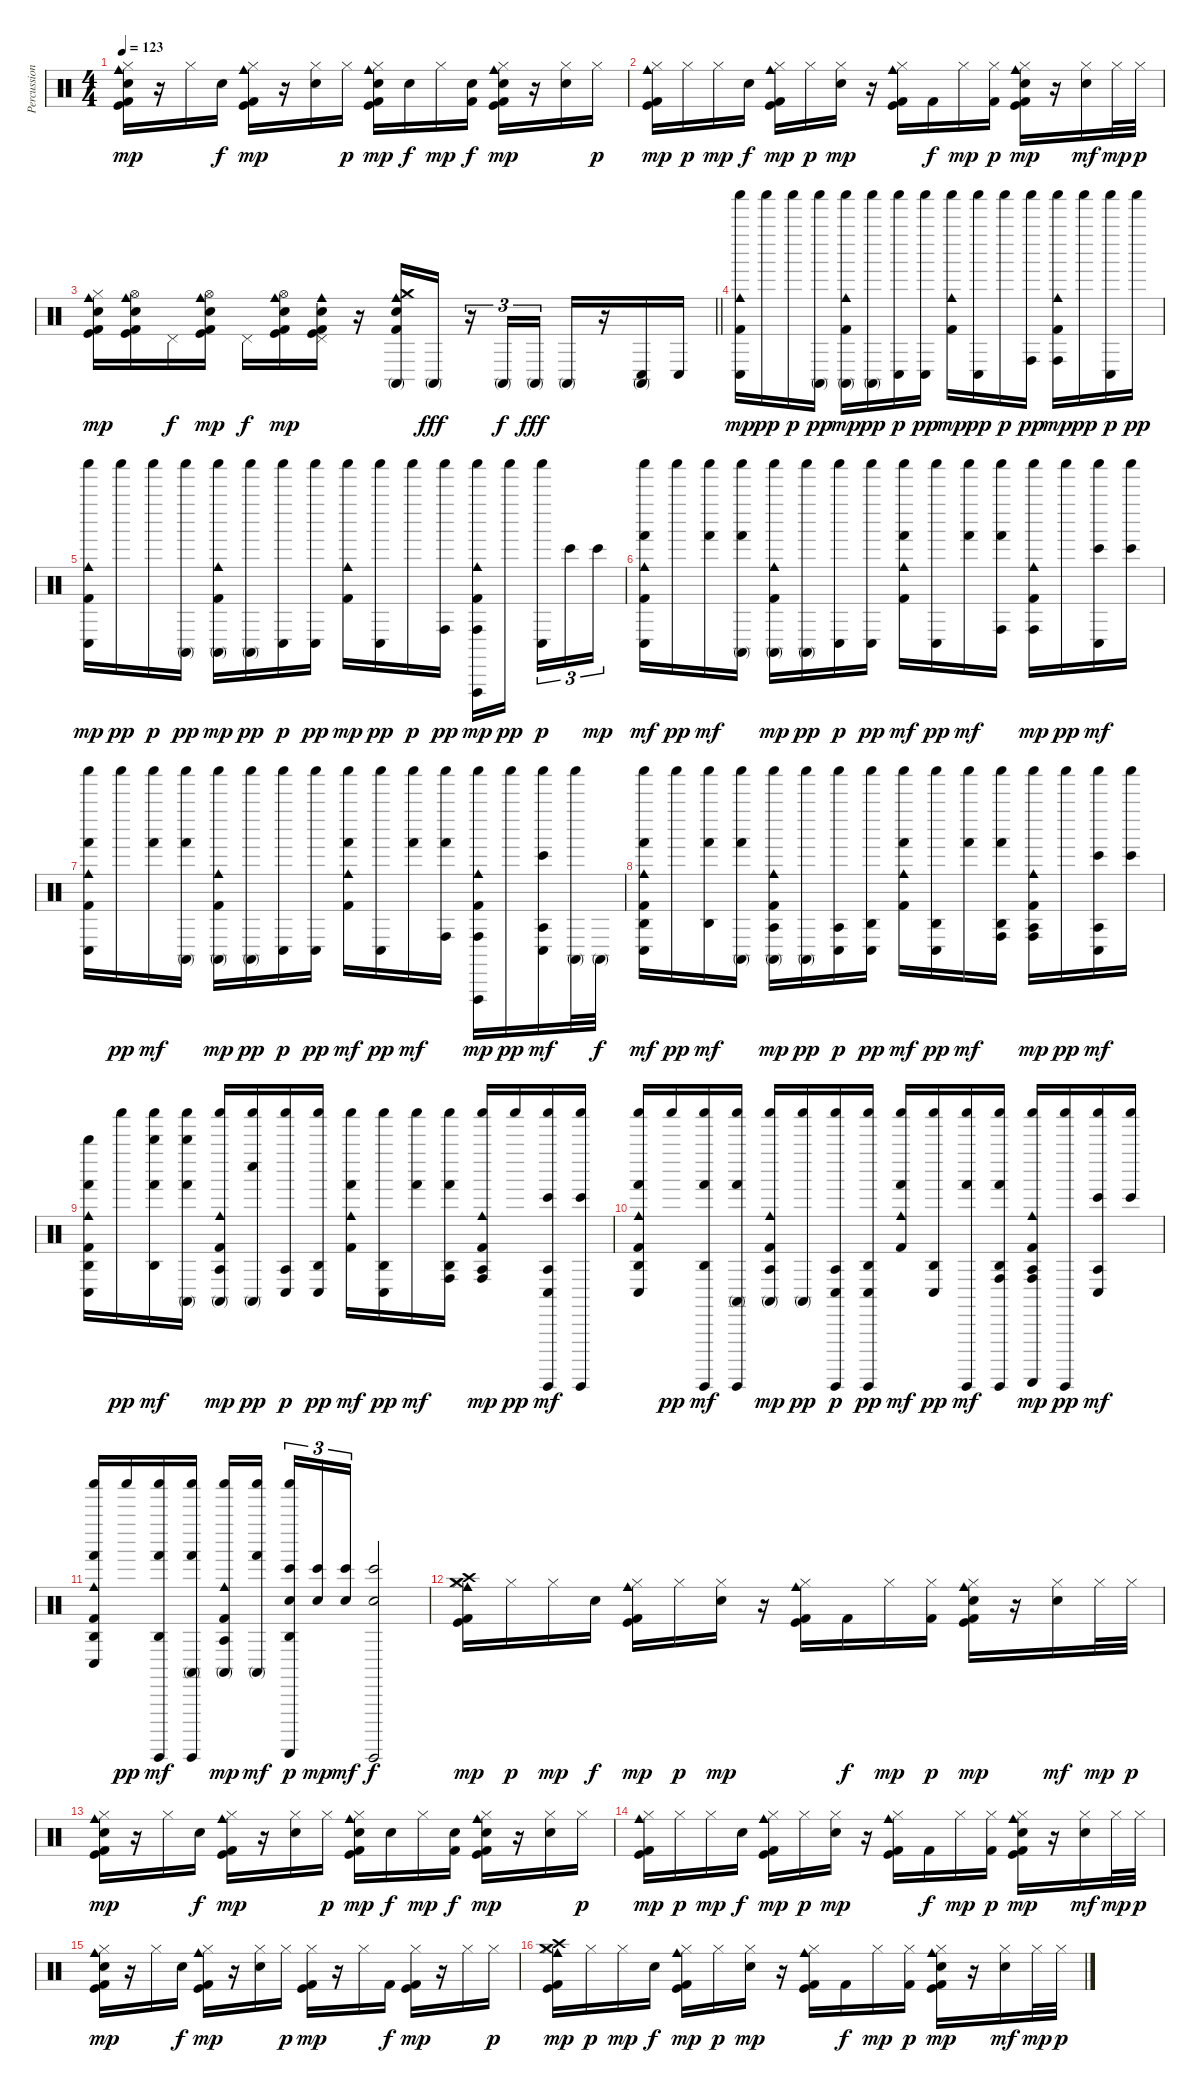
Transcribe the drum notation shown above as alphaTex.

\track ("Percussion" "Percussion") {instrument percussion}
\staff {score}
\articulation defaults
\ts (4 4)
\tempo 123
\clef neutral
\ks c
("Hi-Hat (closed)" "Cowbell medium (hit)" "Kick (hit)" "Electric Snare (hit)" "Kick (hit) 2").16{dy mp} r.16 "Hi-Hat (closed)".16 "Electric Snare (hit)".16{dy f} ("Hi-Hat (closed)" "Cowbell medium (hit)" "Kick (hit)" "Kick (hit) 2").16{dy mp} r.16 ("Hi-Hat (closed)" "Electric Snare (hit)").16 "Hi-Hat (closed)".16{dy p} ("Hi-Hat (closed)" "Cowbell medium (hit)" "Kick (hit)" "Electric Snare (hit)" "Kick (hit) 2").16{dy mp} "Electric Snare (hit)".16{dy f} "Hi-Hat (closed)".16{dy mp} ("Electric Snare (hit)" "Kick (hit) 2").16{dy f} ("Hi-Hat (closed)" "Cowbell medium (hit)" "Kick (hit)" "Electric Snare (hit)" "Kick (hit) 2").16{dy mp} r.16 ("Hi-Hat (closed)" "Electric Snare (hit)").16 "Hi-Hat (closed)".16{dy p} |
("Hi-Hat (closed)" "Cowbell medium (hit)" "Kick (hit)" "Kick (hit) 2").16{dy mp} "Hi-Hat (closed)".16{dy p} "Hi-Hat (closed)".16{dy mp} "Electric Snare (hit)".16{dy f} ("Hi-Hat (closed)" "Cowbell medium (hit)" "Kick (hit)" "Kick (hit) 2").16{dy mp} "Hi-Hat (closed)".16{dy p} ("Hi-Hat (closed)" "Electric Snare (hit)").16{dy mp} r.16 ("Hi-Hat (closed)" "Cowbell medium (hit)" "Kick (hit)" "Kick (hit) 2").16 "Kick (hit) 2".16{dy f} "Hi-Hat (closed)".16{dy mp} ("Hi-Hat (closed)" "Kick (hit) 2").16{dy p} ("Hi-Hat (closed)" "Cowbell medium (hit)" "Kick (hit)" "Electric Snare (hit)" "Kick (hit) 2").16{dy mp} r.16 ("Hi-Hat (closed)" "Electric Snare (hit)").16{dy mf} "Hi-Hat (closed)".32{dy mp} "Hi-Hat (closed)".32{dy p} |
\barLineRight lightlight
("Hi-Hat (closed)" "Cowbell medium (hit)" "Kick (hit)" "Electric Snare (hit)" "Kick (hit) 2").16{dy mp} ("Hi-Hat (open)" "Cowbell medium (hit)" "Kick (hit)" "Electric Snare (hit)" "Kick (hit) 2").16 "Pedal Hi-Hat (hit)".16{dy f} ("Hi-Hat (open)" "Cowbell medium (hit)" "Kick (hit)" "Electric Snare (hit)" "Kick (hit) 2").16{dy mp} "Pedal Hi-Hat (hit)".16{dy f} ("Hi-Hat (open)" "Cowbell medium (hit)" "Kick (hit)" "Electric Snare (hit)" "Kick (hit) 2").16{dy mp} ("Pedal Hi-Hat (hit)" "Cowbell medium (hit)" "Kick (hit)" "Electric Snare (hit)" "Kick (hit) 2").16 r.16 ("Hi-Hat (closed)" "Cowbell medium (hit)" "Conga high (mute)" "Crash medium (hit)" "Electric Snare (hit)" "Kick (hit) 2").16 "Conga high (mute)".16{dy fff} r.16{tu (3 2)} "Conga high (mute)".16{tu (3 2) dy f} "Conga high (mute)".16{tu (3 2) dy fff} "Conga high (mute)".16 r.16 ("Conga low (hit)" "Conga high (mute)").16 "Conga low (hit)".16 |
("Shaker (hit)" "Cowbell medium (hit)" "Conga low (hit)" "Kick (hit) 2").16{dy mp} "Shaker (hit)".16{dy pp} "Shaker (hit)".16{dy p} ("Shaker (hit)" "Conga high (mute)").16{dy pp} ("Shaker (hit)" "Cowbell medium (hit)" "Conga high (mute)" "Kick (hit) 2").16{dy mp} ("Shaker (hit)" "Conga high (mute)").16{dy pp} ("Shaker (hit)" "Conga low (hit)").16{dy p} ("Shaker (hit)" "Conga low (hit)").16{dy pp} ("Shaker (hit)" "Cowbell medium (hit)" "Kick (hit) 2").16{dy mp} ("Shaker (hit)" "Conga low (hit)").16{dy pp} "Shaker (hit)".16{dy p} ("Shaker (hit)" "Conga high (hit)").16{dy pp} ("Shaker (hit)" "Cowbell medium (hit)" "Conga high (hit)" "Kick (hit) 2").16{dy mp} "Shaker (hit)".16{dy pp} ("Shaker (hit)" "Conga low (hit)").16{dy p} "Shaker (hit)".16{dy pp} |
("Shaker (hit)" "Cowbell medium (hit)" "Conga low (hit)" "Kick (hit) 2").16{dy mp} "Shaker (hit)".16{dy pp} "Shaker (hit)".16{dy p} ("Shaker (hit)" "Conga high (mute)").16{dy pp} ("Shaker (hit)" "Cowbell medium (hit)" "Conga high (mute)" "Kick (hit) 2").16{dy mp} ("Shaker (hit)" "Conga high (mute)").16{dy pp} ("Shaker (hit)" "Conga low (hit)").16{dy p} ("Shaker (hit)" "Conga low (hit)").16{dy pp} ("Shaker (hit)" "Cowbell medium (hit)" "Kick (hit) 2").16{dy mp} ("Shaker (hit)" "Conga low (hit)").16{dy pp} "Shaker (hit)".16{dy p} ("Shaker (hit)" "Conga high (hit)").16{dy pp} ("Shaker (hit)" "Cowbell medium (hit)" "Vibraslap (hit)" "Conga high (hit)" "Kick (hit) 2").16{dy mp} "Shaker (hit)".16{dy pp} ("Shaker (hit)" "Conga low (hit)").16{tu (3 2) dy p} "Bongo High (hit)".16{tu (3 2)} "Bongo High (hit)".16{tu (3 2) dy mp} |
("Shaker (hit)" "Cowbell medium (hit)" "Hand (hit)" "Conga low (hit)" "Kick (hit) 2").16{dy mf} "Shaker (hit)".16{dy pp} ("Shaker (hit)" "Hand (hit)").16{dy mf} ("Shaker (hit)" "Hand (hit)" "Conga high (mute)").16 ("Shaker (hit)" "Cowbell medium (hit)" "Conga high (mute)" "Kick (hit) 2").16{dy mp} ("Shaker (hit)" "Conga high (mute)").16{dy pp} ("Shaker (hit)" "Conga low (hit)").16{dy p} ("Shaker (hit)" "Conga low (hit)").16{dy pp} ("Shaker (hit)" "Cowbell medium (hit)" "Hand (hit)" "Kick (hit) 2").16{dy mf} ("Shaker (hit)" "Conga low (hit)").16{dy pp} ("Shaker (hit)" "Hand (hit)").16{dy mf} ("Shaker (hit)" "Hand (hit)" "Conga high (hit)").16 ("Shaker (hit)" "Cowbell medium (hit)" "Conga high (hit)" "Kick (hit) 2").16{dy mp} "Shaker (hit)".16{dy pp} ("Shaker (hit)" "Bongo High (hit)" "Conga low (hit)").16{dy mf} ("Shaker (hit)" "Bongo High (hit)").16 |
("Shaker (hit)" "Cowbell medium (hit)" "Hand (hit)" "Conga low (hit)" "Kick (hit) 2").16 "Shaker (hit)".16{dy pp} ("Shaker (hit)" "Hand (hit)").16{dy mf} ("Shaker (hit)" "Hand (hit)" "Conga high (mute)").16 ("Shaker (hit)" "Cowbell medium (hit)" "Conga high (mute)" "Kick (hit) 2").16{dy mp} ("Shaker (hit)" "Conga high (mute)").16{dy pp} ("Shaker (hit)" "Conga low (hit)").16{dy p} ("Shaker (hit)" "Conga low (hit)").16{dy pp} ("Shaker (hit)" "Cowbell medium (hit)" "Hand (hit)" "Kick (hit) 2").16{dy mf} ("Shaker (hit)" "Conga low (hit)").16{dy pp} ("Shaker (hit)" "Hand (hit)").16{dy mf} ("Shaker (hit)" "Hand (hit)" "Conga high (hit)").16 ("Shaker (hit)" "Cowbell medium (hit)" "Vibraslap (hit)" "Conga high (hit)" "Kick (hit) 2").16{dy mp} "Shaker (hit)".16{dy pp} ("Shaker (hit)" "Agogo tow (hit)" "Bongo High (hit)" "Conga low (hit)").16{dy mf} ("Shaker (hit)" "Conga high (mute)").32 "Conga high (mute)".32{dy f} |
("Shaker (hit)" "Cowbell medium (hit)" "Agogo high (hit)" "Hand (hit)" "Conga low (hit)" "Kick (hit) 2").16{dy mf} "Shaker (hit)".16{dy pp} ("Shaker (hit)" "Agogo high (hit)" "Hand (hit)").16{dy mf} ("Shaker (hit)" "Hand (hit)" "Conga high (mute)").16 ("Shaker (hit)" "Cowbell medium (hit)" "Agogo tow (hit)" "Conga high (mute)" "Kick (hit) 2").16{dy mp} ("Shaker (hit)" "Conga high (mute)").16{dy pp} ("Shaker (hit)" "Agogo tow (hit)" "Conga low (hit)").16{dy p} ("Shaker (hit)" "Agogo high (hit)" "Conga low (hit)").16{dy pp} ("Shaker (hit)" "Cowbell medium (hit)" "Hand (hit)" "Kick (hit) 2").16{dy mf} ("Shaker (hit)" "Agogo high (hit)" "Conga low (hit)").16{dy pp} ("Shaker (hit)" "Hand (hit)").16{dy mf} ("Shaker (hit)" "Agogo high (hit)" "Hand (hit)" "Conga high (hit)").16 ("Shaker (hit)" "Cowbell medium (hit)" "Agogo tow (hit)" "Conga high (hit)" "Kick (hit) 2").16{dy mp} "Shaker (hit)".16{dy pp} ("Shaker (hit)" "Agogo tow (hit)" "Bongo High (hit)" "Conga low (hit)").16{dy mf} ("Shaker (hit)" "Bongo High (hit)").16 |
("Whistle high (hit)" "Cowbell medium (hit)" "Agogo high (hit)" "Hand (hit)" "Conga low (hit)" "Kick (hit) 2").16 "Shaker (hit)".16{dy pp} ("Shaker (hit)" "Whistle high (hit)" "Agogo high (hit)" "Hand (hit)").16{dy mf} ("Shaker (hit)" "Whistle high (hit)" "Hand (hit)" "Conga high (mute)").16 ("Shaker (hit)" "Cowbell medium (hit)" "Agogo tow (hit)" "Conga high (mute)" "Kick (hit) 2").16{dy mp} ("Shaker (hit)" "Whistle low (hit)" "Conga high (mute)").16{dy pp} ("Shaker (hit)" "Agogo tow (hit)" "Conga low (hit)").16{dy p} ("Shaker (hit)" "Agogo high (hit)" "Conga low (hit)").16{dy pp} ("Shaker (hit)" "Cowbell medium (hit)" "Hand (hit)" "Kick (hit) 2").16{dy mf} ("Shaker (hit)" "Agogo high (hit)" "Conga low (hit)").16{dy pp} ("Shaker (hit)" "Hand (hit)").16{dy mf} ("Shaker (hit)" "Agogo high (hit)" "Hand (hit)" "Conga high (hit)").16 ("Shaker (hit)" "Cowbell medium (hit)" "Agogo tow (hit)" "Conga high (hit)" "Kick (hit) 2").16{dy mp} "Shaker (hit)".16{dy pp} ("Shaker (hit)" "Guiro (hit)" "Agogo tow (hit)" "Bongo High (hit)" "Conga low (hit)").16{dy mf} ("Shaker (hit)" "Guiro (hit)" "Bongo High (hit)").16 |
("Shaker (hit)" "Cowbell medium (hit)" "Agogo high (hit)" "Hand (hit)" "Conga low (hit)" "Kick (hit) 2").16 "Shaker (hit)".16{dy pp} ("Shaker (hit)" "Guiro (hit)" "Agogo high (hit)" "Hand (hit)").16{dy mf} ("Shaker (hit)" "Guiro (hit)" "Hand (hit)" "Conga high (mute)").16 ("Shaker (hit)" "Cowbell medium (hit)" "Agogo tow (hit)" "Conga high (mute)" "Kick (hit) 2").16{dy mp} ("Shaker (hit)" "Conga high (mute)").16{dy pp} ("Shaker (hit)" "Guiro (hit)" "Agogo tow (hit)" "Conga low (hit)").16{dy p} ("Shaker (hit)" "Guiro (hit)" "Agogo high (hit)" "Conga low (hit)").16{dy pp} ("Shaker (hit)" "Cowbell medium (hit)" "Hand (hit)" "Kick (hit) 2").16{dy mf} ("Shaker (hit)" "Agogo high (hit)" "Conga low (hit)").16{dy pp} ("Shaker (hit)" "Guiro (hit)" "Hand (hit)").16{dy mf} ("Shaker (hit)" "Guiro (hit)" "Agogo high (hit)" "Hand (hit)" "Conga high (hit)").16 ("Shaker (hit)" "Cowbell medium (hit)" "Agogo tow (hit)" "Guiro (scrap-return)" "Conga high (hit)" "Kick (hit) 2").16{dy mp} ("Shaker (hit)" "Guiro (hit)").16{dy pp} ("Shaker (hit)" "Agogo tow (hit)" "Bongo High (hit)" "Conga low (hit)").16{dy mf} ("Shaker (hit)" "Bongo High (hit)").16 |
("Shaker (hit)" "Cowbell medium (hit)" "Agogo high (hit)" "Hand (hit)" "Conga low (hit)" "Kick (hit) 2").16 "Shaker (hit)".16{dy pp} ("Shaker (hit)" "Guiro (hit)" "Agogo high (hit)" "Hand (hit)").16{dy mf} ("Shaker (hit)" "Guiro (hit)" "Hand (hit)" "Conga high (mute)").16 ("Shaker (hit)" "Cowbell medium (hit)" "Agogo tow (hit)" "Conga high (mute)" "Kick (hit) 2").16{dy mp} ("Shaker (hit)" "Hand (hit)" "Conga high (mute)").16{dy mf} ("Shaker (hit)" "Guiro (scrap-return)" "Agogo high (hit)" "Bongo High (hit)" "Electric Snare (hit)").16{tu (3 2) dy p} ("Bongo High (hit)" "Electric Snare (hit)").16{tu (3 2) dy mp} ("Bongo High (hit)" "Electric Snare (hit)").16{tu (3 2) dy mf} ("Guiro (hit)" "Bongo High (hit)" "Electric Snare (hit)").2{dy f} |
("Hi-Hat (closed)" "Cowbell medium (hit)" "Kick (hit)" "Crash medium (hit)" "Crash high (hit)" "Kick (hit) 2").16{dy mp} "Hi-Hat (closed)".16{dy p} "Hi-Hat (closed)".16{dy mp} "Electric Snare (hit)".16{dy f} ("Hi-Hat (closed)" "Cowbell medium (hit)" "Kick (hit)" "Kick (hit) 2").16{dy mp} "Hi-Hat (closed)".16{dy p} ("Hi-Hat (closed)" "Electric Snare (hit)").16{dy mp} r.16 ("Hi-Hat (closed)" "Cowbell medium (hit)" "Kick (hit)" "Kick (hit) 2").16 "Kick (hit) 2".16{dy f} "Hi-Hat (closed)".16{dy mp} ("Hi-Hat (closed)" "Kick (hit) 2").16{dy p} ("Hi-Hat (closed)" "Cowbell medium (hit)" "Kick (hit)" "Electric Snare (hit)" "Kick (hit) 2").16{dy mp} r.16 ("Hi-Hat (closed)" "Electric Snare (hit)").16{dy mf} "Hi-Hat (closed)".32{dy mp} "Hi-Hat (closed)".32{dy p} |
("Hi-Hat (closed)" "Cowbell medium (hit)" "Kick (hit)" "Electric Snare (hit)" "Kick (hit) 2").16{dy mp} r.16 "Hi-Hat (closed)".16 "Electric Snare (hit)".16{dy f} ("Hi-Hat (closed)" "Cowbell medium (hit)" "Kick (hit)" "Kick (hit) 2").16{dy mp} r.16 ("Hi-Hat (closed)" "Electric Snare (hit)").16 "Hi-Hat (closed)".16{dy p} ("Hi-Hat (closed)" "Cowbell medium (hit)" "Kick (hit)" "Electric Snare (hit)" "Kick (hit) 2").16{dy mp} "Electric Snare (hit)".16{dy f} "Hi-Hat (closed)".16{dy mp} ("Electric Snare (hit)" "Kick (hit) 2").16{dy f} ("Hi-Hat (closed)" "Cowbell medium (hit)" "Kick (hit)" "Electric Snare (hit)" "Kick (hit) 2").16{dy mp} r.16 ("Hi-Hat (closed)" "Electric Snare (hit)").16 "Hi-Hat (closed)".16{dy p} |
("Hi-Hat (closed)" "Cowbell medium (hit)" "Kick (hit)" "Kick (hit) 2").16{dy mp} "Hi-Hat (closed)".16{dy p} "Hi-Hat (closed)".16{dy mp} "Electric Snare (hit)".16{dy f} ("Hi-Hat (closed)" "Cowbell medium (hit)" "Kick (hit)" "Kick (hit) 2").16{dy mp} "Hi-Hat (closed)".16{dy p} ("Hi-Hat (closed)" "Electric Snare (hit)").16{dy mp} r.16 ("Hi-Hat (closed)" "Cowbell medium (hit)" "Kick (hit)" "Kick (hit) 2").16 "Kick (hit) 2".16{dy f} "Hi-Hat (closed)".16{dy mp} ("Hi-Hat (closed)" "Kick (hit) 2").16{dy p} ("Hi-Hat (closed)" "Cowbell medium (hit)" "Kick (hit)" "Electric Snare (hit)" "Kick (hit) 2").16{dy mp} r.16 ("Hi-Hat (closed)" "Electric Snare (hit)").16{dy mf} "Hi-Hat (closed)".32{dy mp} "Hi-Hat (closed)".32{dy p} |
("Hi-Hat (closed)" "Cowbell medium (hit)" "Kick (hit)" "Electric Snare (hit)" "Kick (hit) 2").16{dy mp} r.16 "Hi-Hat (closed)".16 "Electric Snare (hit)".16{dy f} ("Hi-Hat (closed)" "Cowbell medium (hit)" "Kick (hit)" "Kick (hit) 2").16{dy mp} r.16 ("Hi-Hat (closed)" "Electric Snare (hit)").16 "Hi-Hat (closed)".16{dy p} ("Hi-Hat (closed)" "Kick (hit)" "Kick (hit) 2").16{dy mp} r.16 "Hi-Hat (closed)".16 "Kick (hit) 2".16{dy f} ("Hi-Hat (closed)" "Kick (hit)" "Kick (hit) 2").16{dy mp} r.16 "Hi-Hat (closed)".16 "Hi-Hat (closed)".16{dy p} |
("Hi-Hat (closed)" "Cowbell medium (hit)" "Kick (hit)" "Crash medium (hit)" "Crash high (hit)" "Kick (hit) 2").16{dy mp} "Hi-Hat (closed)".16{dy p} "Hi-Hat (closed)".16{dy mp} "Electric Snare (hit)".16{dy f} ("Hi-Hat (closed)" "Cowbell medium (hit)" "Kick (hit)" "Kick (hit) 2").16{dy mp} "Hi-Hat (closed)".16{dy p} ("Hi-Hat (closed)" "Electric Snare (hit)").16{dy mp} r.16 ("Hi-Hat (closed)" "Cowbell medium (hit)" "Kick (hit)" "Kick (hit) 2").16 "Kick (hit) 2".16{dy f} "Hi-Hat (closed)".16{dy mp} ("Hi-Hat (closed)" "Kick (hit) 2").16{dy p} ("Hi-Hat (closed)" "Cowbell medium (hit)" "Kick (hit)" "Electric Snare (hit)" "Kick (hit) 2").16{dy mp} r.16 ("Hi-Hat (closed)" "Electric Snare (hit)").16{dy mf} "Hi-Hat (closed)".32{dy mp} "Hi-Hat (closed)".32{dy p}
